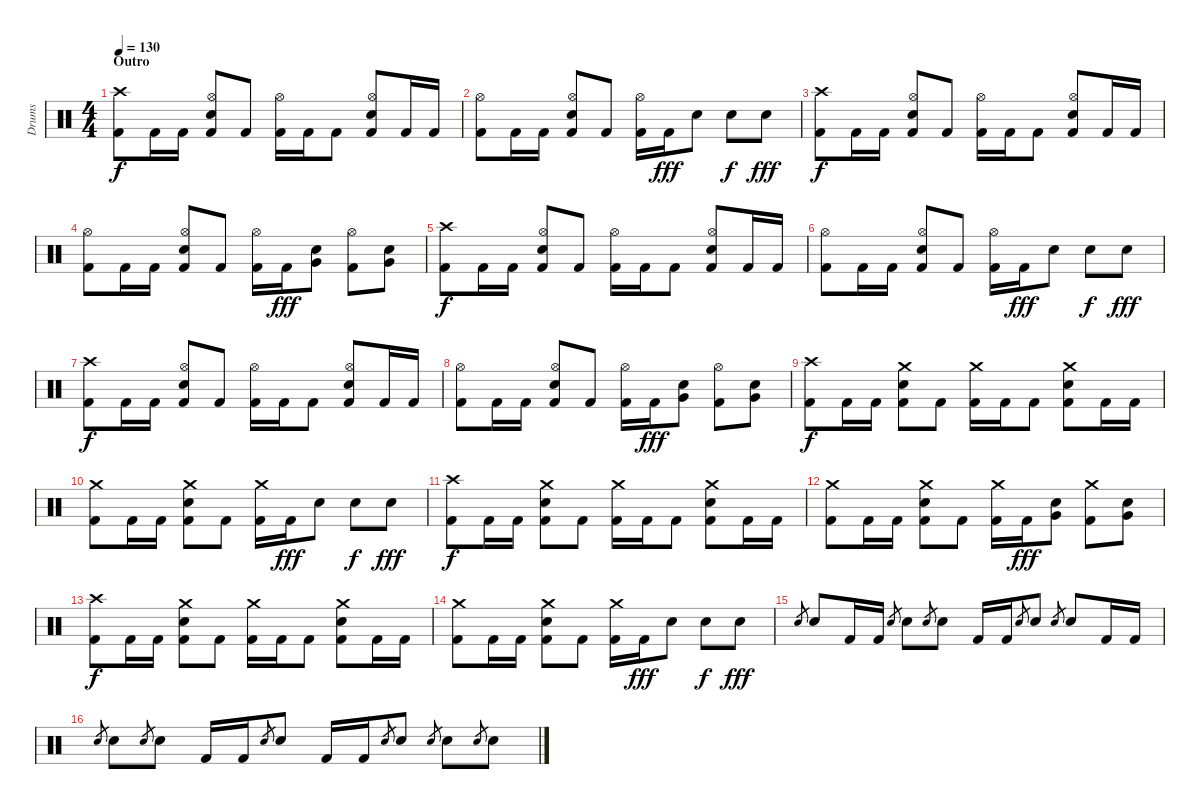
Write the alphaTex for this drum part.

\track ("Drums" "Drums") {instrument percussion}
\staff {score}
\articulation defaults
\ts (4 4)
\section ("" "Outro")
\tempo 130
\clef neutral
\ks c
("Crash high (hit)" "Kick (hit) 2").8{dy f} "Kick (hit) 2".16 "Kick (hit) 2".16 ("Hi-Hat (open)" "Snare (hit) 2" "Kick (hit) 2").8 "Kick (hit) 2".8 ("Hi-Hat (open)" "Kick (hit) 2").16 "Kick (hit) 2".16 "Kick (hit) 2".8 ("Hi-Hat (open)" "Snare (hit) 2" "Kick (hit) 2").8 "Kick (hit) 2".16 "Kick (hit) 2".16 |
("Hi-Hat (open)" "Kick (hit) 2").8 "Kick (hit) 2".16 "Kick (hit) 2".16 ("Hi-Hat (open)" "Snare (hit) 2" "Kick (hit) 2").8 "Kick (hit) 2".8 ("Hi-Hat (open)" "Kick (hit) 2").16 "Kick (hit) 2".16{dy fff} "Snare (hit) 2".8 "Snare (hit) 2".8{dy f} "Snare (hit) 2".8{dy fff} |
("Crash high (hit)" "Kick (hit) 2").8{dy f} "Kick (hit) 2".16 "Kick (hit) 2".16 ("Hi-Hat (open)" "Snare (hit) 2" "Kick (hit) 2").8 "Kick (hit) 2".8 ("Hi-Hat (open)" "Kick (hit) 2").16 "Kick (hit) 2".16 "Kick (hit) 2".8 ("Hi-Hat (open)" "Snare (hit) 2" "Kick (hit) 2").8 "Kick (hit) 2".16 "Kick (hit) 2".16 |
("Hi-Hat (open)" "Kick (hit) 2").8 "Kick (hit) 2".16 "Kick (hit) 2".16 ("Hi-Hat (open)" "Snare (hit) 2" "Kick (hit) 2").8 "Kick (hit) 2".8 ("Hi-Hat (open)" "Kick (hit) 2").16 "Kick (hit) 2".16{dy fff} ("Snare (hit) 2" "Very Low Tom (hit)").8 ("Hi-Hat (open)" "Kick (hit) 2").8 ("Snare (hit) 2" "Very Low Tom (hit)").8 |
("Crash high (hit)" "Kick (hit) 2").8{dy f} "Kick (hit) 2".16 "Kick (hit) 2".16 ("Hi-Hat (open)" "Snare (hit) 2" "Kick (hit) 2").8 "Kick (hit) 2".8 ("Hi-Hat (open)" "Kick (hit) 2").16 "Kick (hit) 2".16 "Kick (hit) 2".8 ("Hi-Hat (open)" "Snare (hit) 2" "Kick (hit) 2").8 "Kick (hit) 2".16 "Kick (hit) 2".16 |
("Hi-Hat (open)" "Kick (hit) 2").8 "Kick (hit) 2".16 "Kick (hit) 2".16 ("Hi-Hat (open)" "Snare (hit) 2" "Kick (hit) 2").8 "Kick (hit) 2".8 ("Hi-Hat (open)" "Kick (hit) 2").16 "Kick (hit) 2".16{dy fff} "Snare (hit) 2".8 "Snare (hit) 2".8{dy f} "Snare (hit) 2".8{dy fff} |
("Crash high (hit)" "Kick (hit) 2").8{dy f} "Kick (hit) 2".16 "Kick (hit) 2".16 ("Hi-Hat (open)" "Snare (hit) 2" "Kick (hit) 2").8 "Kick (hit) 2".8 ("Hi-Hat (open)" "Kick (hit) 2").16 "Kick (hit) 2".16 "Kick (hit) 2".8 ("Hi-Hat (open)" "Snare (hit) 2" "Kick (hit) 2").8 "Kick (hit) 2".16 "Kick (hit) 2".16 |
("Hi-Hat (open)" "Kick (hit) 2").8 "Kick (hit) 2".16 "Kick (hit) 2".16 ("Hi-Hat (open)" "Snare (hit) 2" "Kick (hit) 2").8 "Kick (hit) 2".8 ("Hi-Hat (open)" "Kick (hit) 2").16 "Kick (hit) 2".16{dy fff} ("Snare (hit) 2" "Very Low Tom (hit)").8 ("Hi-Hat (open)" "Kick (hit) 2").8 ("Snare (hit) 2" "Very Low Tom (hit)").8 |
("Crash high (hit)" "Kick (hit) 2").8{dy f} "Kick (hit) 2".16 "Kick (hit) 2".16 ("Crash medium (hit)" "Snare (hit) 2" "Kick (hit) 2").8 "Kick (hit) 2".8 ("Crash medium (hit)" "Kick (hit) 2").16 "Kick (hit) 2".16 "Kick (hit) 2".8 ("Crash medium (hit)" "Snare (hit) 2" "Kick (hit) 2").8 "Kick (hit) 2".16 "Kick (hit) 2".16 |
("Crash medium (hit)" "Kick (hit) 2").8 "Kick (hit) 2".16 "Kick (hit) 2".16 ("Crash medium (hit)" "Snare (hit) 2" "Kick (hit) 2").8 "Kick (hit) 2".8 ("Crash medium (hit)" "Kick (hit) 2").16 "Kick (hit) 2".16{dy fff} "Snare (hit) 2".8 "Snare (hit) 2".8{dy f} "Snare (hit) 2".8{dy fff} |
("Crash high (hit)" "Kick (hit) 2").8{dy f} "Kick (hit) 2".16 "Kick (hit) 2".16 ("Crash medium (hit)" "Snare (hit) 2" "Kick (hit) 2").8 "Kick (hit) 2".8 ("Crash medium (hit)" "Kick (hit) 2").16 "Kick (hit) 2".16 "Kick (hit) 2".8 ("Crash medium (hit)" "Snare (hit) 2" "Kick (hit) 2").8 "Kick (hit) 2".16 "Kick (hit) 2".16 |
("Crash medium (hit)" "Kick (hit) 2").8 "Kick (hit) 2".16 "Kick (hit) 2".16 ("Crash medium (hit)" "Snare (hit) 2" "Kick (hit) 2").8 "Kick (hit) 2".8 ("Crash medium (hit)" "Kick (hit) 2").16 "Kick (hit) 2".16{dy fff} ("Snare (hit) 2" "Very Low Tom (hit)").8 ("Crash medium (hit)" "Kick (hit) 2").8 ("Snare (hit) 2" "Very Low Tom (hit)").8 |
("Crash high (hit)" "Kick (hit) 2").8{dy f} "Kick (hit) 2".16 "Kick (hit) 2".16 ("Crash medium (hit)" "Snare (hit) 2" "Kick (hit) 2").8 "Kick (hit) 2".8 ("Crash medium (hit)" "Kick (hit) 2").16 "Kick (hit) 2".16 "Kick (hit) 2".8 ("Crash medium (hit)" "Snare (hit) 2" "Kick (hit) 2").8 "Kick (hit) 2".16 "Kick (hit) 2".16 |
("Crash medium (hit)" "Kick (hit) 2").8 "Kick (hit) 2".16 "Kick (hit) 2".16 ("Crash medium (hit)" "Snare (hit) 2" "Kick (hit) 2").8 "Kick (hit) 2".8 ("Crash medium (hit)" "Kick (hit) 2").16 "Kick (hit) 2".16{dy fff} "Snare (hit) 2".8 "Snare (hit) 2".8{dy f} "Snare (hit) 2".8{dy fff} |
"Snare (hit) 2".8{gr} "Snare (hit) 2".8 "Kick (hit) 2".16 "Kick (hit) 2".16 "Snare (hit) 2".8{gr} "Snare (hit) 2".8 "Snare (hit) 2".8{gr} "Snare (hit) 2".8 "Kick (hit) 2".16 "Kick (hit) 2".16 "Snare (hit) 2".8{gr} "Snare (hit) 2".8 "Snare (hit) 2".8{gr} "Snare (hit) 2".8 "Kick (hit) 2".16 "Kick (hit) 2".16 |
"Snare (hit) 2".8{gr} "Snare (hit) 2".8 "Snare (hit) 2".8{gr} "Snare (hit) 2".8 "Kick (hit) 2".16 "Kick (hit) 2".16 "Snare (hit) 2".8{gr} "Snare (hit) 2".8 "Kick (hit) 2".16 "Kick (hit) 2".16 "Snare (hit) 2".8{gr} "Snare (hit) 2".8 "Snare (hit) 2".8{gr} "Snare (hit) 2".8 "Snare (hit) 2".8{gr} "Snare (hit) 2".8
